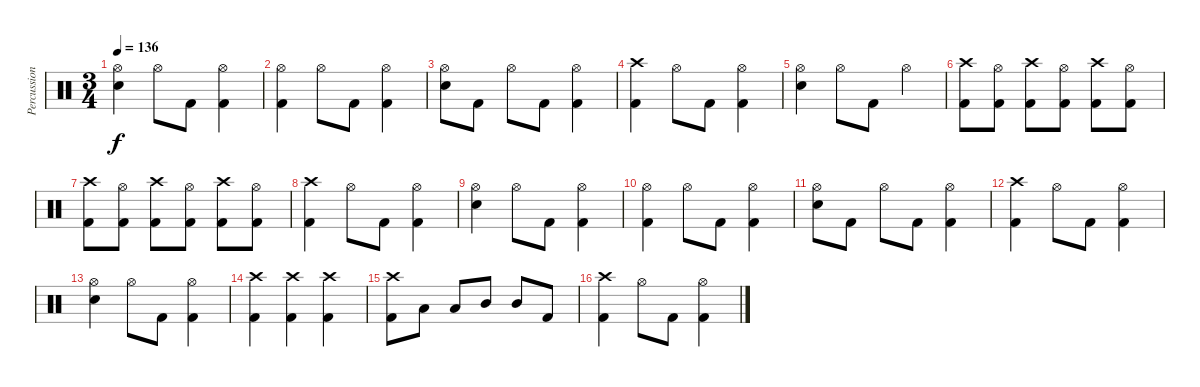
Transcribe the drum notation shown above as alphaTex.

\track ("Percussion" "Percussion") {instrument percussion}
\staff {score}
\articulation defaults
\ts (3 4)
\tempo 136
\clef neutral
\ks c
("Hi-Hat (open)" "Snare (hit) 2").4{dy f} "Hi-Hat (open)".8 "Kick (hit) 2".8 ("Hi-Hat (open)" "Kick (hit) 2").4 |
("Hi-Hat (open)" "Kick (hit) 2").4 "Hi-Hat (open)".8 "Kick (hit) 2".8 ("Hi-Hat (open)" "Kick (hit) 2").4 |
("Hi-Hat (open)" "Snare (hit) 2").8 "Kick (hit) 2".8 "Hi-Hat (open)".8 "Kick (hit) 2".8 ("Hi-Hat (open)" "Kick (hit) 2").4 |
("Crash high (hit)" "Kick (hit) 2").4 "Hi-Hat (open)".8 "Kick (hit) 2".8 ("Hi-Hat (open)" "Kick (hit) 2").4 |
("Hi-Hat (open)" "Snare (hit) 2").4 "Hi-Hat (open)".8 "Kick (hit) 2".8 "Hi-Hat (open)".4 |
("Crash high (hit)" "Kick (hit) 2").8 ("Hi-Hat (open)" "Kick (hit) 2").8 ("Crash high (hit)" "Kick (hit) 2").8 ("Hi-Hat (open)" "Kick (hit) 2").8 ("Crash high (hit)" "Kick (hit) 2").8 ("Hi-Hat (open)" "Kick (hit) 2").8 |
("Crash high (hit)" "Kick (hit) 2").8 ("Hi-Hat (open)" "Kick (hit) 2").8 ("Crash high (hit)" "Kick (hit) 2").8 ("Hi-Hat (open)" "Kick (hit) 2").8 ("Crash high (hit)" "Kick (hit) 2").8 ("Hi-Hat (open)" "Kick (hit) 2").8 |
("Crash high (hit)" "Kick (hit) 2").4 "Hi-Hat (open)".8 "Kick (hit) 2".8 ("Hi-Hat (open)" "Kick (hit) 2").4 |
("Hi-Hat (open)" "Snare (hit) 2").4 "Hi-Hat (open)".8 "Kick (hit) 2".8 ("Hi-Hat (open)" "Kick (hit) 2").4 |
("Hi-Hat (open)" "Kick (hit) 2").4 "Hi-Hat (open)".8 "Kick (hit) 2".8 ("Hi-Hat (open)" "Kick (hit) 2").4 |
("Hi-Hat (open)" "Snare (hit) 2").8 "Kick (hit) 2".8 "Hi-Hat (open)".8 "Kick (hit) 2".8 ("Hi-Hat (open)" "Kick (hit) 2").4 |
("Crash high (hit)" "Kick (hit) 2").4 "Hi-Hat (open)".8 "Kick (hit) 2".8 ("Hi-Hat (open)" "Kick (hit) 2").4 |
("Hi-Hat (open)" "Snare (hit) 2").4 "Hi-Hat (open)".8 "Kick (hit) 2".8 ("Hi-Hat (open)" "Kick (hit) 2").4 |
("Crash high (hit)" "Kick (hit) 2").4 ("Crash high (hit)" "Kick (hit) 2").4 ("Crash high (hit)" "Kick (hit) 2").4 |
("Crash high (hit)" "Kick (hit) 2").8 "Low Tom (hit)".8 "Low Tom (hit)".8 "Mid Tom (hit)".8 "Mid Tom (hit)".8 "Kick (hit) 2".8 |
("Crash high (hit)" "Kick (hit) 2").4 "Hi-Hat (open)".8 "Kick (hit) 2".8 ("Hi-Hat (open)" "Kick (hit) 2").4
